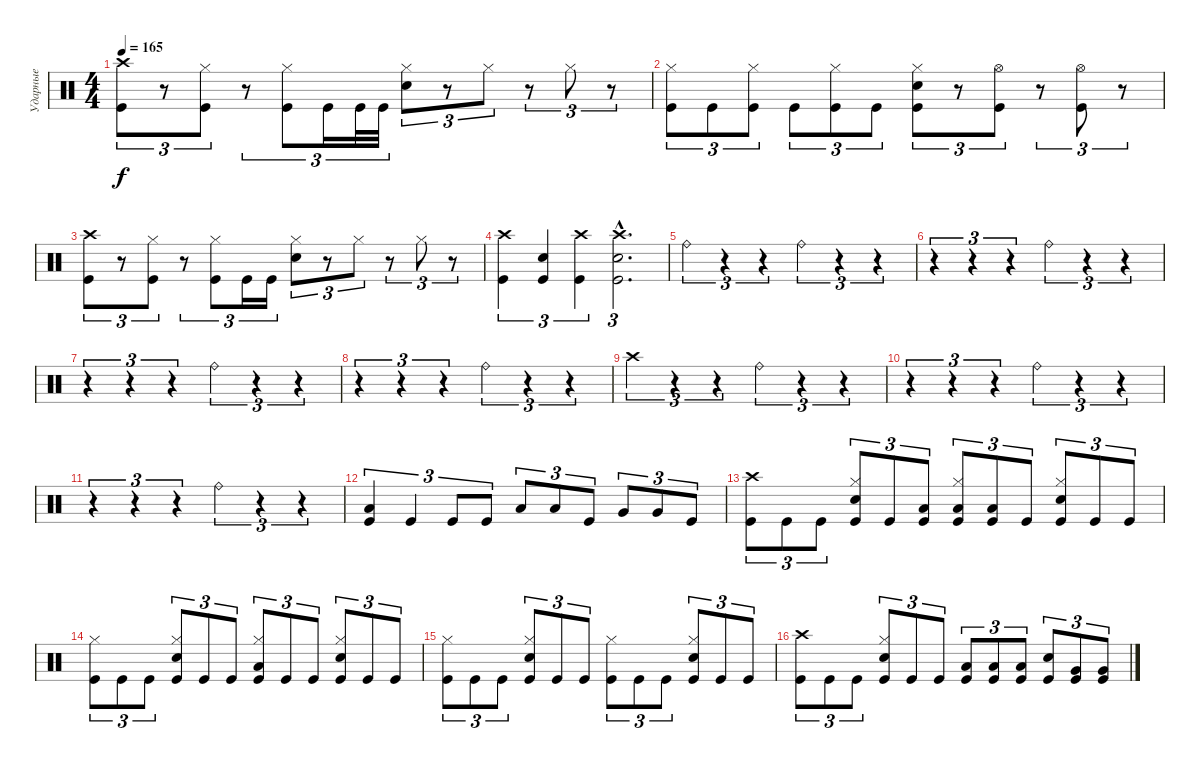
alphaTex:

\track ("Ударные" "Ударные") {instrument percussion}
\staff {score}
\articulation defaults
\ts (4 4)
\tempo 165
\clef neutral
\ks c
("Crash high (hit)" "Kick (hit)").8{tu (3 2) dy f} r.8{tu (3 2)} ("Hi-Hat (closed)" "Kick (hit)").8{tu (3 2)} r.8{tu (3 2)} ("Hi-Hat (closed)" "Kick (hit)").8{tu (3 2)} "Kick (hit)".16{tu (3 2)} "Kick (hit)".32{tu (3 2)} "Kick (hit)".32{tu (3 2)} ("Hi-Hat (closed)" "Electric Snare (hit)").8{tu (3 2)} r.8{tu (3 2)} "Hi-Hat (closed)".8{tu (3 2)} r.8{tu (3 2)} "Hi-Hat (closed)".8{tu (3 2)} r.8{tu (3 2)} |
("Hi-Hat (closed)" "Kick (hit)").8{tu (3 2)} "Kick (hit)".8{tu (3 2)} ("Hi-Hat (closed)" "Kick (hit)").8{tu (3 2)} "Kick (hit)".8{tu (3 2)} ("Hi-Hat (closed)" "Kick (hit)").8{tu (3 2)} "Kick (hit)".8{tu (3 2)} ("Hi-Hat (closed)" "Electric Snare (hit)" "Kick (hit)").8{tu (3 2)} r.8{tu (3 2)} ("Hi-Hat (open)" "Kick (hit)").8{tu (3 2)} r.8{tu (3 2)} ("Hi-Hat (open)" "Kick (hit)").8{tu (3 2)} r.8{tu (3 2)} |
("Crash high (hit)" "Kick (hit)").8{tu (3 2)} r.8{tu (3 2)} ("Hi-Hat (closed)" "Kick (hit)").8{tu (3 2)} r.8{tu (3 2)} ("Hi-Hat (closed)" "Kick (hit)").8{tu (3 2)} "Kick (hit)".16{tu (3 2)} "Kick (hit)".16{tu (3 2)} ("Hi-Hat (closed)" "Electric Snare (hit)").8{tu (3 2)} r.8{tu (3 2)} "Hi-Hat (closed)".8{tu (3 2)} r.8{tu (3 2)} "Hi-Hat (closed)".8{tu (3 2)} r.8{tu (3 2)} |
("Crash high (hit)" "Kick (hit)").4{tu (3 2)} ("Electric Snare (hit)" "Kick (hit)").4{tu (3 2)} ("Crash high (hit)" "Kick (hit)").4{tu (3 2)} ("Crash high (hit)"{hac} "Electric Snare (hit)"{hac} "Kick (hit)"{hac}).2{d tu (3 2)} |
"Ride (bell)".4{tu (3 2)} r.4{tu (3 2)} r.4{tu (3 2)} "Ride (bell)".4{tu (3 2)} r.4{tu (3 2)} r.4{tu (3 2)} |
r.4{tu (3 2)} r.4{tu (3 2)} r.4{tu (3 2)} "Ride (bell)".4{tu (3 2)} r.4{tu (3 2)} r.4{tu (3 2)} |
r.4{tu (3 2)} r.4{tu (3 2)} r.4{tu (3 2)} "Ride (bell)".4{tu (3 2)} r.4{tu (3 2)} r.4{tu (3 2)} |
r.4{tu (3 2)} r.4{tu (3 2)} r.4{tu (3 2)} "Ride (bell)".4{tu (3 2)} r.4{tu (3 2)} r.4{tu (3 2)} |
"Crash high (hit)".4{tu (3 2)} r.4{tu (3 2)} r.4{tu (3 2)} "Ride (bell)".4{tu (3 2)} r.4{tu (3 2)} r.4{tu (3 2)} |
r.4{tu (3 2)} r.4{tu (3 2)} r.4{tu (3 2)} "Ride (bell)".4{tu (3 2)} r.4{tu (3 2)} r.4{tu (3 2)} |
r.4{tu (3 2)} r.4{tu (3 2)} r.4{tu (3 2)} "Ride (bell)".4{tu (3 2)} r.4{tu (3 2)} r.4{tu (3 2)} |
("Low Tom (hit)" "Kick (hit)").4{tu (3 2)} "Kick (hit)".4{tu (3 2)} "Kick (hit)".8{tu (3 2)} "Kick (hit)".8{tu (3 2)} "Low Tom (hit)".8{tu (3 2)} "Low Tom (hit)".8{tu (3 2)} "Kick (hit)".8{tu (3 2)} "Very Low Tom (hit)".8{tu (3 2)} "Very Low Tom (hit)".8{tu (3 2)} "Kick (hit)".8{tu (3 2)} |
("Crash high (hit)" "Kick (hit)").8{tu (3 2)} "Kick (hit)".8{tu (3 2)} "Kick (hit)".8{tu (3 2)} ("Hi-Hat (closed)" "Electric Snare (hit)" "Kick (hit)").8{tu (3 2)} "Kick (hit)".8{tu (3 2)} ("Low Tom (hit)" "Kick (hit)").8{tu (3 2)} ("Hi-Hat (closed)" "Low Tom (hit)" "Kick (hit)").8{tu (3 2)} ("Low Tom (hit)" "Kick (hit)").8{tu (3 2)} "Kick (hit)".8{tu (3 2)} ("Hi-Hat (closed)" "Electric Snare (hit)" "Kick (hit)").8{tu (3 2)} "Kick (hit)".8{tu (3 2)} "Kick (hit)".8{tu (3 2)} |
("Hi-Hat (closed)" "Kick (hit)").8{tu (3 2)} "Kick (hit)".8{tu (3 2)} "Kick (hit)".8{tu (3 2)} ("Hi-Hat (closed)" "Electric Snare (hit)" "Kick (hit)").8{tu (3 2)} "Kick (hit)".8{tu (3 2)} "Kick (hit)".8{tu (3 2)} ("Hi-Hat (closed)" "Low Tom (hit)" "Kick (hit)").8{tu (3 2)} "Kick (hit)".8{tu (3 2)} "Kick (hit)".8{tu (3 2)} ("Hi-Hat (closed)" "Electric Snare (hit)" "Kick (hit)").8{tu (3 2)} "Kick (hit)".8{tu (3 2)} "Kick (hit)".8{tu (3 2)} |
("Hi-Hat (closed)" "Kick (hit)").8{tu (3 2)} "Kick (hit)".8{tu (3 2)} "Kick (hit)".8{tu (3 2)} ("Hi-Hat (closed)" "Electric Snare (hit)" "Kick (hit)").8{tu (3 2)} "Kick (hit)".8{tu (3 2)} "Kick (hit)".8{tu (3 2)} ("Hi-Hat (closed)" "Kick (hit)").8{tu (3 2)} "Kick (hit)".8{tu (3 2)} "Kick (hit)".8{tu (3 2)} ("Hi-Hat (closed)" "Electric Snare (hit)" "Kick (hit)").8{tu (3 2)} "Kick (hit)".8{tu (3 2)} "Kick (hit)".8{tu (3 2)} |
("Crash high (hit)" "Kick (hit)").8{tu (3 2)} "Kick (hit)".8{tu (3 2)} "Kick (hit)".8{tu (3 2)} ("Hi-Hat (closed)" "Electric Snare (hit)" "Kick (hit)").8{tu (3 2)} "Kick (hit)".8{tu (3 2)} "Kick (hit)".8{tu (3 2)} ("Low Tom (hit)" "Kick (hit)").8{tu (3 2)} ("Low Tom (hit)" "Kick (hit)").8{tu (3 2)} ("Low Tom (hit)" "Kick (hit)").8{tu (3 2)} ("Electric Snare (hit)" "Kick (hit)").8{tu (3 2)} ("Very Low Tom (hit)" "Kick (hit)").8{tu (3 2)} ("Very Low Tom (hit)" "Kick (hit)").8{tu (3 2)}
